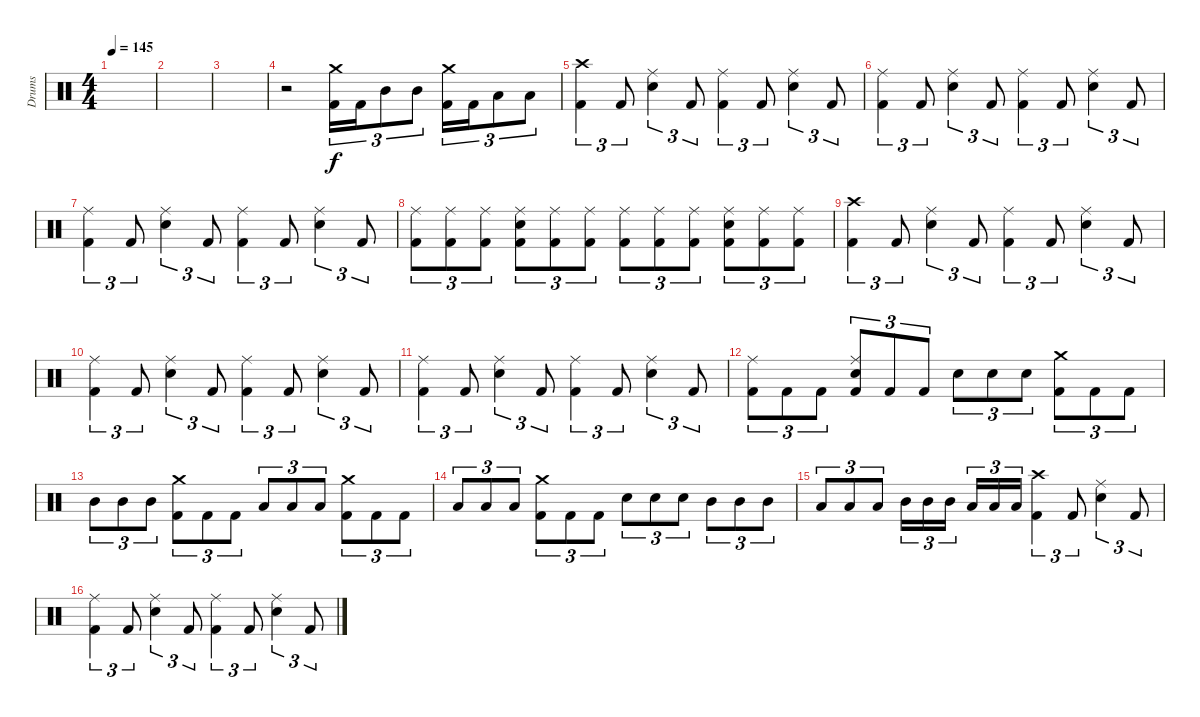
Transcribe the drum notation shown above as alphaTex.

\track ("Drums" "Drums") {instrument percussion}
\staff {score}
\articulation defaults
\ts (4 4)
\tempo 145
\clef neutral
\ks c
|
|
|
r.2 ("Crash medium (hit)" "Kick (hit) 2").16{tu (3 2)} "Kick (hit) 2".16{tu (3 2)} "Mid Tom (hit)".8{tu (3 2)} "Mid Tom (hit)".8{tu (3 2)} ("Crash medium (hit)" "Kick (hit) 2").16{tu (3 2)} "Kick (hit) 2".16{tu (3 2)} "Low Tom (hit)".8{tu (3 2)} "Low Tom (hit)".8{tu (3 2)} |
("Crash high (hit)" "Kick (hit) 2").4{tu (3 2)} "Kick (hit) 2".8{tu (3 2)} ("Ride (middle)" "Electric Snare (hit)").4{tu (3 2)} "Kick (hit) 2".8{tu (3 2)} ("Ride (middle)" "Kick (hit) 2").4{tu (3 2)} "Kick (hit) 2".8{tu (3 2)} ("Ride (middle)" "Electric Snare (hit)").4{tu (3 2)} "Kick (hit) 2".8{tu (3 2)} |
("Ride (middle)" "Kick (hit) 2").4{tu (3 2)} "Kick (hit) 2".8{tu (3 2)} ("Ride (middle)" "Electric Snare (hit)").4{tu (3 2)} "Kick (hit) 2".8{tu (3 2)} ("Ride (middle)" "Kick (hit) 2").4{tu (3 2)} "Kick (hit) 2".8{tu (3 2)} ("Ride (middle)" "Electric Snare (hit)").4{tu (3 2)} "Kick (hit) 2".8{tu (3 2)} |
("Ride (middle)" "Kick (hit) 2").4{tu (3 2)} "Kick (hit) 2".8{tu (3 2)} ("Ride (middle)" "Electric Snare (hit)").4{tu (3 2)} "Kick (hit) 2".8{tu (3 2)} ("Ride (middle)" "Kick (hit) 2").4{tu (3 2)} "Kick (hit) 2".8{tu (3 2)} ("Ride (middle)" "Electric Snare (hit)").4{tu (3 2)} "Kick (hit) 2".8{tu (3 2)} |
("Ride (middle)" "Kick (hit) 2").8{tu (3 2)} ("Ride (middle)" "Kick (hit) 2").8{tu (3 2)} ("Ride (middle)" "Kick (hit) 2").8{tu (3 2)} ("Ride (middle)" "Electric Snare (hit)" "Kick (hit) 2").8{tu (3 2)} ("Ride (middle)" "Kick (hit) 2").8{tu (3 2)} ("Ride (middle)" "Kick (hit) 2").8{tu (3 2)} ("Ride (middle)" "Kick (hit) 2").8{tu (3 2)} ("Ride (middle)" "Kick (hit) 2").8{tu (3 2)} ("Ride (middle)" "Kick (hit) 2").8{tu (3 2)} ("Ride (middle)" "Electric Snare (hit)" "Kick (hit) 2").8{tu (3 2)} ("Ride (middle)" "Kick (hit) 2").8{tu (3 2)} ("Ride (middle)" "Kick (hit) 2").8{tu (3 2)} |
("Crash high (hit)" "Kick (hit) 2").4{tu (3 2)} "Kick (hit) 2".8{tu (3 2)} ("Ride (middle)" "Electric Snare (hit)").4{tu (3 2)} "Kick (hit) 2".8{tu (3 2)} ("Ride (middle)" "Kick (hit) 2").4{tu (3 2)} "Kick (hit) 2".8{tu (3 2)} ("Ride (middle)" "Electric Snare (hit)").4{tu (3 2)} "Kick (hit) 2".8{tu (3 2)} |
("Ride (middle)" "Kick (hit) 2").4{tu (3 2)} "Kick (hit) 2".8{tu (3 2)} ("Ride (middle)" "Electric Snare (hit)").4{tu (3 2)} "Kick (hit) 2".8{tu (3 2)} ("Ride (middle)" "Kick (hit) 2").4{tu (3 2)} "Kick (hit) 2".8{tu (3 2)} ("Ride (middle)" "Electric Snare (hit)").4{tu (3 2)} "Kick (hit) 2".8{tu (3 2)} |
("Ride (middle)" "Kick (hit) 2").4{tu (3 2)} "Kick (hit) 2".8{tu (3 2)} ("Ride (middle)" "Electric Snare (hit)").4{tu (3 2)} "Kick (hit) 2".8{tu (3 2)} ("Ride (middle)" "Kick (hit) 2").4{tu (3 2)} "Kick (hit) 2".8{tu (3 2)} ("Ride (middle)" "Electric Snare (hit)").4{tu (3 2)} "Kick (hit) 2".8{tu (3 2)} |
("Ride (middle)" "Kick (hit) 2").8{tu (3 2)} "Kick (hit) 2".8{tu (3 2)} "Kick (hit) 2".8{tu (3 2)} ("Ride (middle)" "Electric Snare (hit)" "Kick (hit) 2").8{tu (3 2)} "Kick (hit) 2".8{tu (3 2)} "Kick (hit) 2".8{tu (3 2)} "Electric Snare (hit)".8{tu (3 2)} "Electric Snare (hit)".8{tu (3 2)} "Electric Snare (hit)".8{tu (3 2)} ("Crash medium (hit)" "Kick (hit) 2").8{tu (3 2)} "Kick (hit) 2".8{tu (3 2)} "Kick (hit) 2".8{tu (3 2)} |
"Mid Tom (hit)".8{tu (3 2)} "Mid Tom (hit)".8{tu (3 2)} "Mid Tom (hit)".8{tu (3 2)} ("Crash medium (hit)" "Kick (hit) 2").8{tu (3 2)} "Kick (hit) 2".8{tu (3 2)} "Kick (hit) 2".8{tu (3 2)} "Low Tom (hit)".8{tu (3 2)} "Low Tom (hit)".8{tu (3 2)} "Low Tom (hit)".8{tu (3 2)} ("Crash medium (hit)" "Kick (hit) 2").8{tu (3 2)} "Kick (hit) 2".8{tu (3 2)} "Kick (hit) 2".8{tu (3 2)} |
"Low Floor Tom (hit)".8{tu (3 2)} "Low Floor Tom (hit)".8{tu (3 2)} "Low Floor Tom (hit)".8{tu (3 2)} ("Crash medium (hit)" "Kick (hit) 2").8{tu (3 2)} "Kick (hit) 2".8{tu (3 2)} "Kick (hit) 2".8{tu (3 2)} "Electric Snare (hit)".8{tu (3 2)} "Electric Snare (hit)".8{tu (3 2)} "Electric Snare (hit)".8{tu (3 2)} "Mid Tom (hit)".8{tu (3 2)} "Mid Tom (hit)".8{tu (3 2)} "Mid Tom (hit)".8{tu (3 2)} |
"Low Tom (hit)".8{tu (3 2)} "Low Tom (hit)".8{tu (3 2)} "Low Tom (hit)".8{tu (3 2)} "Mid Tom (hit)".16{tu (3 2)} "Mid Tom (hit)".16{tu (3 2)} "Mid Tom (hit)".16{tu (3 2)} "Low Tom (hit)".16{tu (3 2)} "Low Tom (hit)".16{tu (3 2)} "Low Tom (hit)".16{tu (3 2)} ("Crash high (hit)" "Kick (hit) 2").4{tu (3 2)} "Kick (hit) 2".8{tu (3 2)} ("Ride (middle)" "Electric Snare (hit)").4{tu (3 2)} "Kick (hit) 2".8{tu (3 2)} |
("Ride (middle)" "Kick (hit) 2").4{tu (3 2)} "Kick (hit) 2".8{tu (3 2)} ("Ride (middle)" "Electric Snare (hit)").4{tu (3 2)} "Kick (hit) 2".8{tu (3 2)} ("Ride (middle)" "Kick (hit) 2").4{tu (3 2)} "Kick (hit) 2".8{tu (3 2)} ("Ride (middle)" "Electric Snare (hit)").4{tu (3 2)} "Kick (hit) 2".8{tu (3 2)}
